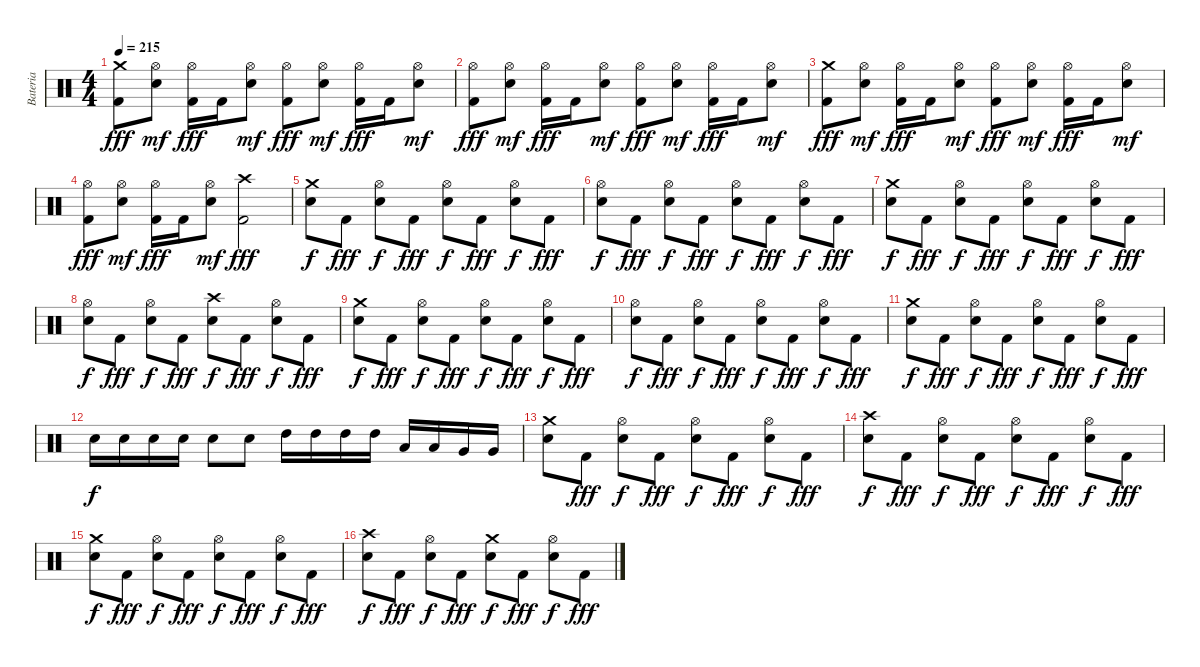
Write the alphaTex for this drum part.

\track ("Bateria" "Bateria") {instrument percussion}
\staff {score}
\articulation defaults
\ts (4 4)
\tempo 215
\clef neutral
\ks c
("Crash medium (hit)" "Kick (hit) 2").8{dy fff} ("Hi-Hat (open)" "Electric Snare (hit)").8{dy mf} ("Hi-Hat (open)" "Kick (hit) 2").16{dy fff} "Kick (hit) 2".16 ("Hi-Hat (open)" "Electric Snare (hit)").8{dy mf} ("Hi-Hat (open)" "Kick (hit) 2").8{dy fff} ("Hi-Hat (open)" "Electric Snare (hit)").8{dy mf} ("Hi-Hat (open)" "Kick (hit) 2").16{dy fff} "Kick (hit) 2".16 ("Hi-Hat (open)" "Electric Snare (hit)").8{dy mf} |
("Hi-Hat (open)" "Kick (hit) 2").8{dy fff} ("Hi-Hat (open)" "Electric Snare (hit)").8{dy mf} ("Hi-Hat (open)" "Kick (hit) 2").16{dy fff} "Kick (hit) 2".16 ("Hi-Hat (open)" "Electric Snare (hit)").8{dy mf} ("Hi-Hat (open)" "Kick (hit) 2").8{dy fff} ("Hi-Hat (open)" "Electric Snare (hit)").8{dy mf} ("Hi-Hat (open)" "Kick (hit) 2").16{dy fff} "Kick (hit) 2".16 ("Hi-Hat (open)" "Electric Snare (hit)").8{dy mf} |
("Crash medium (hit)" "Kick (hit) 2").8{dy fff} ("Hi-Hat (open)" "Electric Snare (hit)").8{dy mf} ("Hi-Hat (open)" "Kick (hit) 2").16{dy fff} "Kick (hit) 2".16 ("Hi-Hat (open)" "Electric Snare (hit)").8{dy mf} ("Hi-Hat (open)" "Kick (hit) 2").8{dy fff} ("Hi-Hat (open)" "Electric Snare (hit)").8{dy mf} ("Hi-Hat (open)" "Kick (hit) 2").16{dy fff} "Kick (hit) 2".16 ("Hi-Hat (open)" "Electric Snare (hit)").8{dy mf} |
("Hi-Hat (open)" "Kick (hit) 2").8{dy fff} ("Hi-Hat (open)" "Electric Snare (hit)").8{dy mf} ("Hi-Hat (open)" "Kick (hit) 2").16{dy fff} "Kick (hit) 2".16 ("Hi-Hat (open)" "Electric Snare (hit)").8{dy mf} ("Crash high (hit)" "Kick (hit) 2").2{dy fff} |
("Crash medium (hit)" "Electric Snare (hit)").8{dy f} "Kick (hit) 2".8{dy fff} ("Hi-Hat (open)" "Electric Snare (hit)").8{dy f} "Kick (hit) 2".8{dy fff} ("Hi-Hat (open)" "Electric Snare (hit)").8{dy f} "Kick (hit) 2".8{dy fff} ("Hi-Hat (open)" "Electric Snare (hit)").8{dy f} "Kick (hit) 2".8{dy fff} |
("Hi-Hat (open)" "Electric Snare (hit)").8{dy f} "Kick (hit) 2".8{dy fff} ("Hi-Hat (open)" "Electric Snare (hit)").8{dy f} "Kick (hit) 2".8{dy fff} ("Hi-Hat (open)" "Electric Snare (hit)").8{dy f} "Kick (hit) 2".8{dy fff} ("Hi-Hat (open)" "Electric Snare (hit)").8{dy f} "Kick (hit) 2".8{dy fff} |
("Crash medium (hit)" "Electric Snare (hit)").8{dy f} "Kick (hit) 2".8{dy fff} ("Hi-Hat (open)" "Electric Snare (hit)").8{dy f} "Kick (hit) 2".8{dy fff} ("Hi-Hat (open)" "Electric Snare (hit)").8{dy f} "Kick (hit) 2".8{dy fff} ("Hi-Hat (open)" "Electric Snare (hit)").8{dy f} "Kick (hit) 2".8{dy fff} |
("Hi-Hat (open)" "Electric Snare (hit)").8{dy f} "Kick (hit) 2".8{dy fff} ("Hi-Hat (open)" "Electric Snare (hit)").8{dy f} "Kick (hit) 2".8{dy fff} ("Crash high (hit)" "Electric Snare (hit)").8{dy f} "Kick (hit) 2".8{dy fff} ("Hi-Hat (open)" "Electric Snare (hit)").8{dy f} "Kick (hit) 2".8{dy fff} |
("Crash medium (hit)" "Electric Snare (hit)").8{dy f} "Kick (hit) 2".8{dy fff} ("Hi-Hat (open)" "Electric Snare (hit)").8{dy f} "Kick (hit) 2".8{dy fff} ("Hi-Hat (open)" "Electric Snare (hit)").8{dy f} "Kick (hit) 2".8{dy fff} ("Hi-Hat (open)" "Electric Snare (hit)").8{dy f} "Kick (hit) 2".8{dy fff} |
("Hi-Hat (open)" "Electric Snare (hit)").8{dy f} "Kick (hit) 2".8{dy fff} ("Hi-Hat (open)" "Electric Snare (hit)").8{dy f} "Kick (hit) 2".8{dy fff} ("Hi-Hat (open)" "Electric Snare (hit)").8{dy f} "Kick (hit) 2".8{dy fff} ("Hi-Hat (open)" "Electric Snare (hit)").8{dy f} "Kick (hit) 2".8{dy fff} |
("Crash medium (hit)" "Electric Snare (hit)").8{dy f} "Kick (hit) 2".8{dy fff} ("Hi-Hat (open)" "Electric Snare (hit)").8{dy f} "Kick (hit) 2".8{dy fff} ("Hi-Hat (open)" "Electric Snare (hit)").8{dy f} "Kick (hit) 2".8{dy fff} ("Hi-Hat (open)" "Electric Snare (hit)").8{dy f} "Kick (hit) 2".8{dy fff} |
"Electric Snare (hit)".16{dy f} "Electric Snare (hit)".16 "Electric Snare (hit)".16 "Electric Snare (hit)".16 "Electric Snare (hit)".8 "Electric Snare (hit)".8 "High Tom (hit)".16 "High Tom (hit)".16 "High Tom (hit)".16 "High Tom (hit)".16 "Low Tom (hit)".16 "Low Tom (hit)".16 "Very Low Tom (hit)".16 "Very Low Tom (hit)".16 |
("Crash medium (hit)" "Electric Snare (hit)").8 "Kick (hit) 2".8{dy fff} ("Hi-Hat (open)" "Electric Snare (hit)").8{dy f} "Kick (hit) 2".8{dy fff} ("Hi-Hat (open)" "Electric Snare (hit)").8{dy f} "Kick (hit) 2".8{dy fff} ("Hi-Hat (open)" "Electric Snare (hit)").8{dy f} "Kick (hit) 2".8{dy fff} |
("Crash high (hit)" "Electric Snare (hit)").8{dy f} "Kick (hit) 2".8{dy fff} ("Hi-Hat (open)" "Electric Snare (hit)").8{dy f} "Kick (hit) 2".8{dy fff} ("Hi-Hat (open)" "Electric Snare (hit)").8{dy f} "Kick (hit) 2".8{dy fff} ("Hi-Hat (open)" "Electric Snare (hit)").8{dy f} "Kick (hit) 2".8{dy fff} |
("Crash medium (hit)" "Electric Snare (hit)").8{dy f} "Kick (hit) 2".8{dy fff} ("Hi-Hat (open)" "Electric Snare (hit)").8{dy f} "Kick (hit) 2".8{dy fff} ("Hi-Hat (open)" "Electric Snare (hit)").8{dy f} "Kick (hit) 2".8{dy fff} ("Hi-Hat (open)" "Electric Snare (hit)").8{dy f} "Kick (hit) 2".8{dy fff} |
("Crash high (hit)" "Electric Snare (hit)").8{dy f} "Kick (hit) 2".8{dy fff} ("Hi-Hat (open)" "Electric Snare (hit)").8{dy f} "Kick (hit) 2".8{dy fff} ("Crash medium (hit)" "Electric Snare (hit)").8{dy f} "Kick (hit) 2".8{dy fff} ("Hi-Hat (open)" "Electric Snare (hit)").8{dy f} "Kick (hit) 2".8{dy fff}
